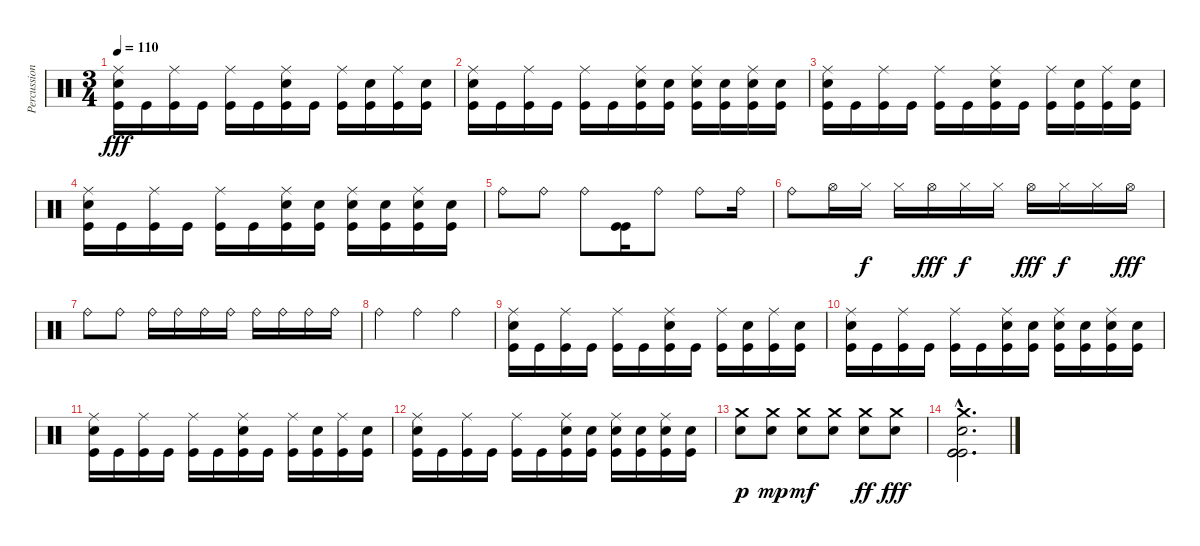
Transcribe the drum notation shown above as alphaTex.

\track ("Percussions" "Percussion") {instrument percussion}
\staff {score}
\articulation defaults
\ts (3 4)
\tempo 110
\clef neutral
\ks c
("Ride (middle)" "Snare (hit) 2" "Kick (hit)").16{dy fff} "Kick (hit)".16 ("Ride (middle)" "Kick (hit)").16 "Kick (hit)".16 ("Ride (middle)" "Kick (hit)").16 "Kick (hit)".16 ("Ride (middle)" "Snare (hit) 2" "Kick (hit)").16 "Kick (hit)".16 ("Ride (middle)" "Kick (hit)").16 ("Snare (hit) 2" "Kick (hit)").16 ("Ride (middle)" "Kick (hit)").16 ("Snare (hit) 2" "Kick (hit)").16 |
("Ride (middle)" "Snare (hit) 2" "Kick (hit)").16 "Kick (hit)".16 ("Ride (middle)" "Kick (hit)").16 "Kick (hit)".16 ("Ride (middle)" "Kick (hit)").16 "Kick (hit)".16 ("Ride (middle)" "Snare (hit) 2" "Kick (hit)").16 ("Snare (hit) 2" "Kick (hit)").16 ("Ride (middle)" "Snare (hit) 2" "Kick (hit)").16 ("Snare (hit) 2" "Kick (hit)").16 ("Ride (middle)" "Snare (hit) 2" "Kick (hit)").16 ("Snare (hit) 2" "Kick (hit)").16 |
("Ride (middle)" "Snare (hit) 2" "Kick (hit)").16 "Kick (hit)".16 ("Ride (middle)" "Kick (hit)").16 "Kick (hit)".16 ("Ride (middle)" "Kick (hit)").16 "Kick (hit)".16 ("Ride (middle)" "Snare (hit) 2" "Kick (hit)").16 "Kick (hit)".16 ("Ride (middle)" "Kick (hit)").16 ("Snare (hit) 2" "Kick (hit)").16 ("Ride (middle)" "Kick (hit)").16 ("Snare (hit) 2" "Kick (hit)").16 |
("Ride (middle)" "Snare (hit) 2" "Kick (hit)").16 "Kick (hit)".16 ("Ride (middle)" "Kick (hit)").16 "Kick (hit)".16 ("Ride (middle)" "Kick (hit)").16 "Kick (hit)".16 ("Ride (middle)" "Snare (hit) 2" "Kick (hit)").16 ("Snare (hit) 2" "Kick (hit)").16 ("Ride (middle)" "Snare (hit) 2" "Kick (hit)").16 ("Snare (hit) 2" "Kick (hit)").16 ("Ride (middle)" "Snare (hit) 2" "Kick (hit)").16 ("Snare (hit) 2" "Kick (hit)").16 |
"Ride (bell)".8 "Ride (bell)".8 "Ride (bell)".8 ("Kick (hit)" "Kick (hit)").16 "Ride (bell)".8 "Ride (bell)".8 "Ride (bell)".16 |
"Ride (bell)".8 "Hi-Hat (open)".16 "Hi-Hat (closed)".16{dy f} "Hi-Hat (closed)".16 "Hi-Hat (open)".16{dy fff} "Hi-Hat (closed)".16{dy f} "Hi-Hat (closed)".16 "Hi-Hat (open)".16{dy fff} "Hi-Hat (closed)".16{dy f} "Hi-Hat (closed)".16 "Hi-Hat (open)".16{dy fff} |
"Ride (bell)".8 "Ride (bell)".8 "Ride (bell)".16 "Ride (bell)".16 "Ride (bell)".16 "Ride (bell)".16 "Ride (bell)".16 "Ride (bell)".16 "Ride (bell)".16 "Ride (bell)".16 |
"Ride (bell)".4 "Ride (bell)".4 "Ride (bell)".4 |
("Ride (middle)" "Snare (hit) 2" "Kick (hit)").16 "Kick (hit)".16 ("Ride (middle)" "Kick (hit)").16 "Kick (hit)".16 ("Ride (middle)" "Kick (hit)").16 "Kick (hit)".16 ("Ride (middle)" "Snare (hit) 2" "Kick (hit)").16 "Kick (hit)".16 ("Ride (middle)" "Kick (hit)").16 ("Snare (hit) 2" "Kick (hit)").16 ("Ride (middle)" "Kick (hit)").16 ("Snare (hit) 2" "Kick (hit)").16 |
("Ride (middle)" "Snare (hit) 2" "Kick (hit)").16 "Kick (hit)".16 ("Ride (middle)" "Kick (hit)").16 "Kick (hit)".16 ("Ride (middle)" "Kick (hit)").16 "Kick (hit)".16 ("Ride (middle)" "Snare (hit) 2" "Kick (hit)").16 ("Snare (hit) 2" "Kick (hit)").16 ("Ride (middle)" "Snare (hit) 2" "Kick (hit)").16 ("Snare (hit) 2" "Kick (hit)").16 ("Ride (middle)" "Snare (hit) 2" "Kick (hit)").16 ("Snare (hit) 2" "Kick (hit)").16 |
("Ride (middle)" "Snare (hit) 2" "Kick (hit)").16 "Kick (hit)".16 ("Ride (middle)" "Kick (hit)").16 "Kick (hit)".16 ("Ride (middle)" "Kick (hit)").16 "Kick (hit)".16 ("Ride (middle)" "Snare (hit) 2" "Kick (hit)").16 "Kick (hit)".16 ("Ride (middle)" "Kick (hit)").16 ("Snare (hit) 2" "Kick (hit)").16 ("Ride (middle)" "Kick (hit)").16 ("Snare (hit) 2" "Kick (hit)").16 |
("Ride (middle)" "Snare (hit) 2" "Kick (hit)").16 "Kick (hit)".16 ("Ride (middle)" "Kick (hit)").16 "Kick (hit)".16 ("Ride (middle)" "Kick (hit)").16 "Kick (hit)".16 ("Ride (middle)" "Snare (hit) 2" "Kick (hit)").16 ("Snare (hit) 2" "Kick (hit)").16 ("Ride (middle)" "Snare (hit) 2" "Kick (hit)").16 ("Snare (hit) 2" "Kick (hit)").16 ("Ride (middle)" "Snare (hit) 2" "Kick (hit)").16 ("Snare (hit) 2" "Kick (hit)").16 |
("Crash medium (hit)" "Snare (hit) 2").8{dy p} ("Crash medium (hit)" "Snare (hit) 2").8{dy mp} ("Crash medium (hit)" "Snare (hit) 2").8{dy mf} ("Crash medium (hit)" "Snare (hit) 2").8 ("Crash medium (hit)" "Snare (hit) 2").8{dy ff} ("Crash medium (hit)" "Snare (hit) 2").8{dy fff} |
("Crash medium (hit)"{hac} "Snare (hit) 2"{hac} "Kick (hit)"{hac} "Kick (hit)"{hac} "Kick (hit)"{hac}).2{d}
